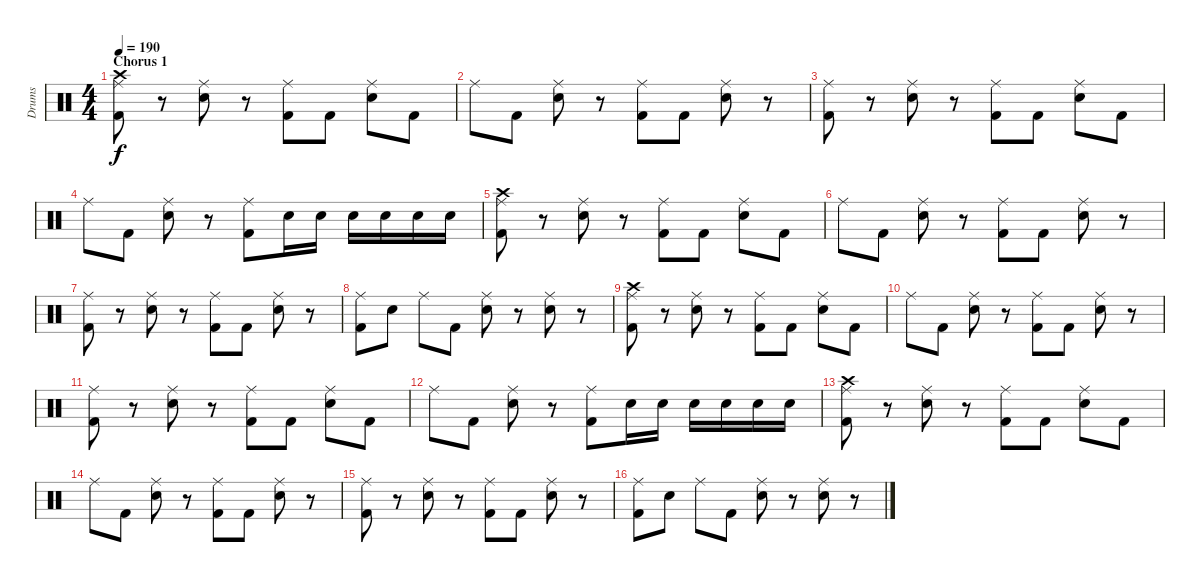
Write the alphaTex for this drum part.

\track ("Drums" "Drums") {instrument percussion}
\staff {score}
\articulation defaults
\ts (4 4)
\section ("" "Chorus 1")
\tempo 190
\clef neutral
\ks c
("Ride (middle)" "Crash high (hit)" "Kick (hit) 2").8{dy f} r.8 ("Ride (middle)" "Snare (hit) 2").8 r.8 ("Ride (middle)" "Kick (hit) 2").8 "Kick (hit) 2".8 ("Ride (middle)" "Snare (hit) 2").8 "Kick (hit) 2".8 |
"Ride (middle)".8 "Kick (hit) 2".8 ("Ride (middle)" "Snare (hit) 2").8 r.8 ("Ride (middle)" "Kick (hit) 2").8 "Kick (hit) 2".8 ("Ride (middle)" "Snare (hit) 2").8 r.8 |
("Ride (middle)" "Kick (hit) 2").8 r.8 ("Ride (middle)" "Snare (hit) 2").8 r.8 ("Ride (middle)" "Kick (hit) 2").8 "Kick (hit) 2".8 ("Ride (middle)" "Snare (hit) 2").8 "Kick (hit) 2".8 |
"Ride (middle)".8 "Kick (hit) 2".8 ("Ride (middle)" "Snare (hit) 2").8 r.8 ("Ride (middle)" "Kick (hit) 2").8 "Snare (hit) 2".16 "Snare (hit) 2".16 "Snare (hit) 2".16 "Snare (hit) 2".16 "Snare (hit) 2".16 "Snare (hit) 2".16 |
("Ride (middle)" "Crash high (hit)" "Kick (hit) 2").8 r.8 ("Ride (middle)" "Snare (hit) 2").8 r.8 ("Ride (middle)" "Kick (hit) 2").8 "Kick (hit) 2".8 ("Ride (middle)" "Snare (hit) 2").8 "Kick (hit) 2".8 |
"Ride (middle)".8 "Kick (hit) 2".8 ("Ride (middle)" "Snare (hit) 2").8 r.8 ("Ride (middle)" "Kick (hit) 2").8 "Kick (hit) 2".8 ("Ride (middle)" "Snare (hit) 2").8 r.8 |
("Ride (middle)" "Kick (hit) 2").8 r.8 ("Ride (middle)" "Snare (hit) 2").8 r.8 ("Ride (middle)" "Kick (hit) 2").8 "Kick (hit) 2".8 ("Ride (middle)" "Snare (hit) 2").8 r.8 |
("Ride (middle)" "Kick (hit) 2").8 "Snare (hit) 2".8 "Ride (middle)".8 "Kick (hit) 2".8 ("Ride (middle)" "Snare (hit) 2").8 r.8 ("Ride (middle)" "Snare (hit) 2").8 r.8 |
("Ride (middle)" "Crash high (hit)" "Kick (hit) 2").8 r.8 ("Ride (middle)" "Snare (hit) 2").8 r.8 ("Ride (middle)" "Kick (hit) 2").8 "Kick (hit) 2".8 ("Ride (middle)" "Snare (hit) 2").8 "Kick (hit) 2".8 |
"Ride (middle)".8 "Kick (hit) 2".8 ("Ride (middle)" "Snare (hit) 2").8 r.8 ("Ride (middle)" "Kick (hit) 2").8 "Kick (hit) 2".8 ("Ride (middle)" "Snare (hit) 2").8 r.8 |
("Ride (middle)" "Kick (hit) 2").8 r.8 ("Ride (middle)" "Snare (hit) 2").8 r.8 ("Ride (middle)" "Kick (hit) 2").8 "Kick (hit) 2".8 ("Ride (middle)" "Snare (hit) 2").8 "Kick (hit) 2".8 |
"Ride (middle)".8 "Kick (hit) 2".8 ("Ride (middle)" "Snare (hit) 2").8 r.8 ("Ride (middle)" "Kick (hit) 2").8 "Snare (hit) 2".16 "Snare (hit) 2".16 "Snare (hit) 2".16 "Snare (hit) 2".16 "Snare (hit) 2".16 "Snare (hit) 2".16 |
("Ride (middle)" "Crash high (hit)" "Kick (hit) 2").8 r.8 ("Ride (middle)" "Snare (hit) 2").8 r.8 ("Ride (middle)" "Kick (hit) 2").8 "Kick (hit) 2".8 ("Ride (middle)" "Snare (hit) 2").8 "Kick (hit) 2".8 |
"Ride (middle)".8 "Kick (hit) 2".8 ("Ride (middle)" "Snare (hit) 2").8 r.8 ("Ride (middle)" "Kick (hit) 2").8 "Kick (hit) 2".8 ("Ride (middle)" "Snare (hit) 2").8 r.8 |
("Ride (middle)" "Kick (hit) 2").8 r.8 ("Ride (middle)" "Snare (hit) 2").8 r.8 ("Ride (middle)" "Kick (hit) 2").8 "Kick (hit) 2".8 ("Ride (middle)" "Snare (hit) 2").8 r.8 |
("Ride (middle)" "Kick (hit) 2").8 "Snare (hit) 2".8 "Ride (middle)".8 "Kick (hit) 2".8 ("Ride (middle)" "Snare (hit) 2").8 r.8 ("Ride (middle)" "Snare (hit) 2").8 r.8
